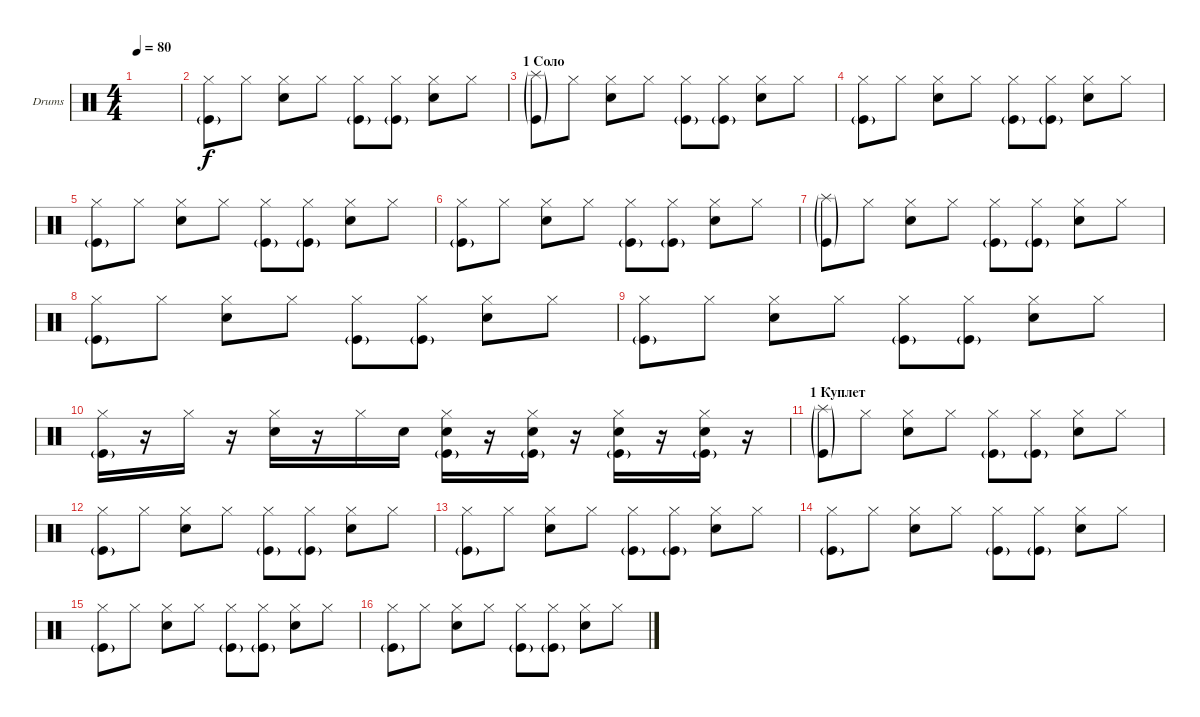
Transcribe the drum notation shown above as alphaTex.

\defaultSystemsLayout 4
\bracketExtendMode groupsimilarinstruments
\firstSystemTrackNameOrientation horizontal
\otherSystemsTrackNameOrientation horizontal
\track ("Drumkit" "Drums") {instrument percussion}
\staff {score}
\articulation defaults
\ts (4 4)
\tempo 80
\clef neutral
\ks c
|
("Hi-Hat (closed)" "Kick (hit)"{g}).8 "Hi-Hat (closed)".8 ("Hi-Hat (closed)" "Snare (hit) 2").8 "Hi-Hat (closed)".8 ("Hi-Hat (closed)" "Kick (hit)"{g}).8 ("Hi-Hat (closed)" "Kick (hit)"{g}).8 ("Hi-Hat (closed)" "Snare (hit) 2").8 "Hi-Hat (closed)".8 |
\section ("" "1 Соло")
("Kick (hit)"{g} "Splash (hit)"{g}).8 "Hi-Hat (closed)".8 ("Hi-Hat (closed)" "Snare (hit) 2").8 "Hi-Hat (closed)".8 ("Hi-Hat (closed)" "Kick (hit)"{g}).8 ("Hi-Hat (closed)" "Kick (hit)"{g}).8 ("Hi-Hat (closed)" "Snare (hit) 2").8 "Hi-Hat (closed)".8 |
("Hi-Hat (closed)" "Kick (hit)"{g}).8 "Hi-Hat (closed)".8 ("Hi-Hat (closed)" "Snare (hit) 2").8 "Hi-Hat (closed)".8 ("Hi-Hat (closed)" "Kick (hit)"{g}).8 ("Hi-Hat (closed)" "Kick (hit)"{g}).8 ("Hi-Hat (closed)" "Snare (hit) 2").8 "Hi-Hat (closed)".8 |
("Hi-Hat (closed)" "Kick (hit)"{g}).8 "Hi-Hat (closed)".8 ("Hi-Hat (closed)" "Snare (hit) 2").8 "Hi-Hat (closed)".8 ("Hi-Hat (closed)" "Kick (hit)"{g}).8 ("Hi-Hat (closed)" "Kick (hit)"{g}).8 ("Hi-Hat (closed)" "Snare (hit) 2").8 "Hi-Hat (closed)".8 |
("Hi-Hat (closed)" "Kick (hit)"{g}).8 "Hi-Hat (closed)".8 ("Hi-Hat (closed)" "Snare (hit) 2").8 "Hi-Hat (closed)".8 ("Hi-Hat (closed)" "Kick (hit)"{g}).8 ("Hi-Hat (closed)" "Kick (hit)"{g}).8 ("Hi-Hat (closed)" "Snare (hit) 2").8 "Hi-Hat (closed)".8 |
("Kick (hit)"{g} "Splash (hit)"{g}).8 "Hi-Hat (closed)".8 ("Hi-Hat (closed)" "Snare (hit) 2").8 "Hi-Hat (closed)".8 ("Hi-Hat (closed)" "Kick (hit)"{g}).8 ("Hi-Hat (closed)" "Kick (hit)"{g}).8 ("Hi-Hat (closed)" "Snare (hit) 2").8 "Hi-Hat (closed)".8 |
("Hi-Hat (closed)" "Kick (hit)"{g}).8 "Hi-Hat (closed)".8 ("Hi-Hat (closed)" "Snare (hit) 2").8 "Hi-Hat (closed)".8 ("Hi-Hat (closed)" "Kick (hit)"{g}).8 ("Hi-Hat (closed)" "Kick (hit)"{g}).8 ("Hi-Hat (closed)" "Snare (hit) 2").8 "Hi-Hat (closed)".8 |
("Hi-Hat (closed)" "Kick (hit)"{g}).8 "Hi-Hat (closed)".8 ("Hi-Hat (closed)" "Snare (hit) 2").8 "Hi-Hat (closed)".8 ("Hi-Hat (closed)" "Kick (hit)"{g}).8 ("Hi-Hat (closed)" "Kick (hit)"{g}).8 ("Hi-Hat (closed)" "Snare (hit) 2").8 "Hi-Hat (closed)".8 |
("Hi-Hat (closed)" "Kick (hit)"{g}).16 r.16 "Hi-Hat (closed)".16 r.16 ("Hi-Hat (closed)" "Snare (hit) 2").16 r.16 "Hi-Hat (closed)".16 "Snare (hit) 2".16 ("Kick (hit)"{g} "Hi-Hat (closed)" "Snare (hit) 2").16 r.16 ("Kick (hit)"{g} "Hi-Hat (closed)" "Snare (hit) 2").16 r.16 ("Kick (hit)"{g} "Hi-Hat (closed)" "Snare (hit) 2").16 r.16 ("Kick (hit)"{g} "Hi-Hat (closed)" "Snare (hit) 2").16 r.16 |
\section ("" "1 Куплет")
("Kick (hit)"{g} "Splash (hit)"{g}).8 "Hi-Hat (closed)".8 ("Hi-Hat (closed)" "Snare (hit) 2").8 "Hi-Hat (closed)".8 ("Hi-Hat (closed)" "Kick (hit)"{g}).8 ("Hi-Hat (closed)" "Kick (hit)"{g}).8 ("Hi-Hat (closed)" "Snare (hit) 2").8 "Hi-Hat (closed)".8 |
("Hi-Hat (closed)" "Kick (hit)"{g}).8 "Hi-Hat (closed)".8 ("Hi-Hat (closed)" "Snare (hit) 2").8 "Hi-Hat (closed)".8 ("Hi-Hat (closed)" "Kick (hit)"{g}).8 ("Hi-Hat (closed)" "Kick (hit)"{g}).8 ("Hi-Hat (closed)" "Snare (hit) 2").8 "Hi-Hat (closed)".8 |
("Hi-Hat (closed)" "Kick (hit)"{g}).8 "Hi-Hat (closed)".8 ("Hi-Hat (closed)" "Snare (hit) 2").8 "Hi-Hat (closed)".8 ("Hi-Hat (closed)" "Kick (hit)"{g}).8 ("Hi-Hat (closed)" "Kick (hit)"{g}).8 ("Hi-Hat (closed)" "Snare (hit) 2").8 "Hi-Hat (closed)".8 |
("Hi-Hat (closed)" "Kick (hit)"{g}).8 "Hi-Hat (closed)".8 ("Hi-Hat (closed)" "Snare (hit) 2").8 "Hi-Hat (closed)".8 ("Hi-Hat (closed)" "Kick (hit)"{g}).8 ("Hi-Hat (closed)" "Kick (hit)"{g}).8 ("Hi-Hat (closed)" "Snare (hit) 2").8 "Hi-Hat (closed)".8 |
("Kick (hit)"{g} "Hi-Hat (closed)").8 "Hi-Hat (closed)".8 ("Hi-Hat (closed)" "Snare (hit) 2").8 "Hi-Hat (closed)".8 ("Hi-Hat (closed)" "Kick (hit)"{g}).8 ("Hi-Hat (closed)" "Kick (hit)"{g}).8 ("Hi-Hat (closed)" "Snare (hit) 2").8 "Hi-Hat (closed)".8 |
("Hi-Hat (closed)" "Kick (hit)"{g}).8 "Hi-Hat (closed)".8 ("Hi-Hat (closed)" "Snare (hit) 2").8 "Hi-Hat (closed)".8 ("Hi-Hat (closed)" "Kick (hit)"{g}).8 ("Hi-Hat (closed)" "Kick (hit)"{g}).8 ("Hi-Hat (closed)" "Snare (hit) 2").8 "Hi-Hat (closed)".8
